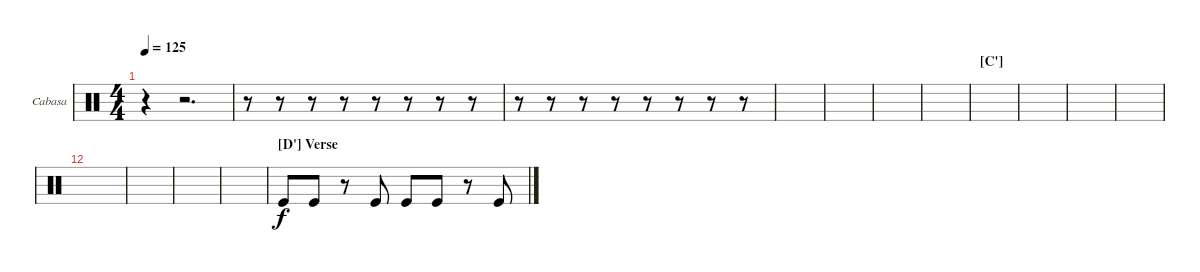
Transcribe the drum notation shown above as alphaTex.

\bracketExtendMode nobrackets
\firstSystemTrackNameOrientation horizontal
\otherSystemsTrackNameOrientation horizontal
\defaultBarNumberDisplay FirstOfSystem
\track ("Cabasa" "Cabasa") {instrument percussion}
\staff {score}
\articulation defaults
\ts (4 4)
\tempo 125
\clef neutral
\ks c
r.4{dy f} r.2{d} |
r.8 r.8 r.8 r.8 r.8 r.8 r.8 r.8 |
r.8 r.8 r.8 r.8 r.8 r.8 r.8 r.8 |
|
|
|
|
\section ("C'" "")
|
|
|
|
|
|
|
|
\section ("D'" "Verse")
"Kick (hit)".8 "Kick (hit)".8 r.8 "Kick (hit)".8 "Kick (hit)".8 "Kick (hit)".8 r.8 "Kick (hit)".8
